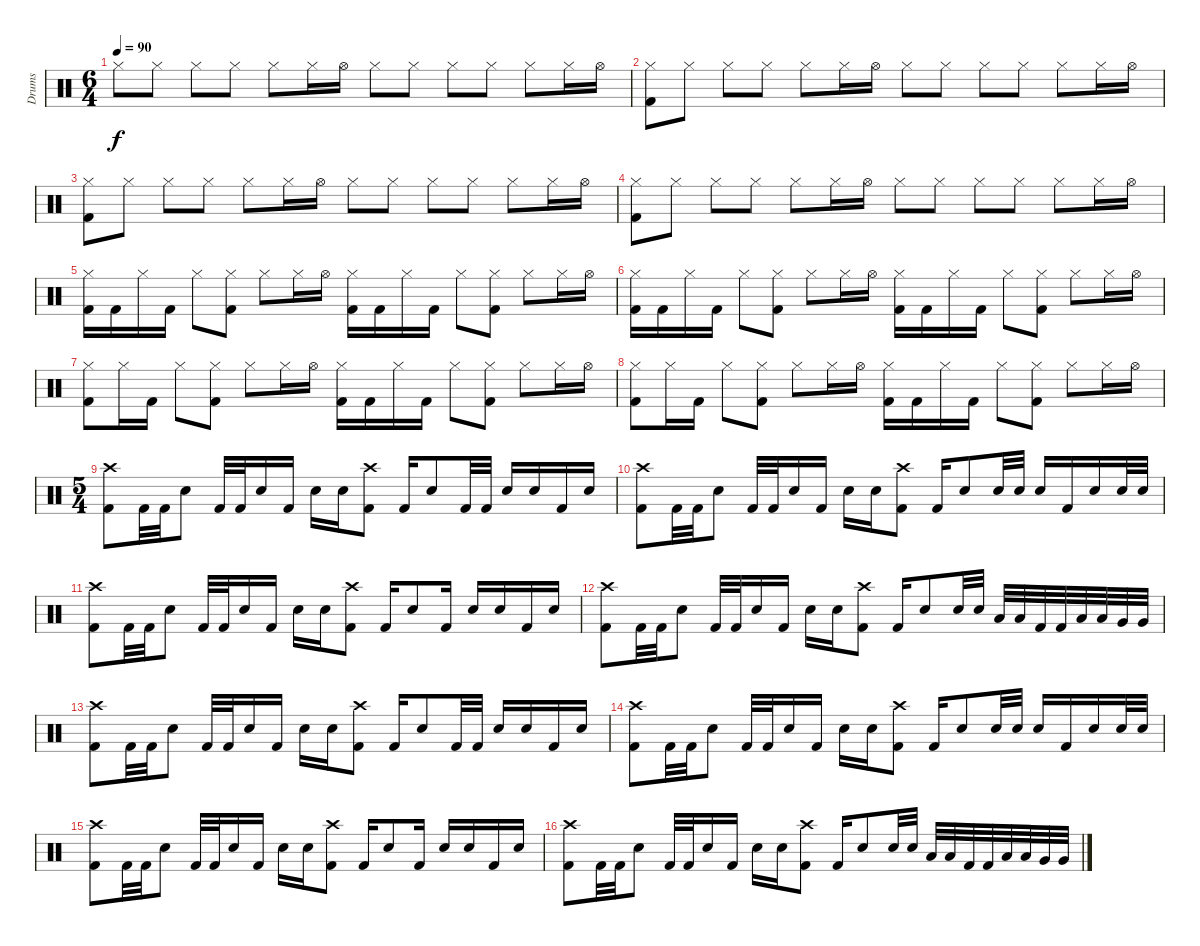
\track ("Drums" "Drums") {instrument percussion}
\staff {score}
\articulation defaults
\ts (6 4)
\tempo 90
\clef neutral
\ks c "Hi-Hat (closed)".8{dy f} "Hi-Hat (closed)".8 "Hi-Hat (closed)".8 "Hi-Hat (closed)".8 "Hi-Hat (closed)".8 "Hi-Hat (closed)".16 "Hi-Hat (open)".16 "Hi-Hat (closed)".8 "Hi-Hat (closed)".8 "Hi-Hat (closed)".8 "Hi-Hat (closed)".8 "Hi-Hat (closed)".8 "Hi-Hat (closed)".16 "Hi-Hat (open)".16
|
("Kick (hit) 2" "Hi-Hat (closed)").8 "Hi-Hat (closed)".8 "Hi-Hat (closed)".8 "Hi-Hat (closed)".8 "Hi-Hat (closed)".8 "Hi-Hat (closed)".16 "Hi-Hat (open)".16 "Hi-Hat (closed)".8 "Hi-Hat (closed)".8 "Hi-Hat (closed)".8 "Hi-Hat (closed)".8 "Hi-Hat (closed)".8 "Hi-Hat (closed)".16 "Hi-Hat (open)".16 |
("Kick (hit) 2" "Hi-Hat (closed)").8 "Hi-Hat (closed)".8 "Hi-Hat (closed)".8 "Hi-Hat (closed)".8 "Hi-Hat (closed)".8 "Hi-Hat (closed)".16 "Hi-Hat (open)".16 "Hi-Hat (closed)".8 "Hi-Hat (closed)".8 "Hi-Hat (closed)".8 "Hi-Hat (closed)".8 "Hi-Hat (closed)".8 "Hi-Hat (closed)".16 "Hi-Hat (open)".16 |
("Kick (hit) 2" "Hi-Hat (closed)").8 "Hi-Hat (closed)".8 "Hi-Hat (closed)".8 "Hi-Hat (closed)".8 "Hi-Hat (closed)".8 "Hi-Hat (closed)".16 "Hi-Hat (open)".16 "Hi-Hat (closed)".8 "Hi-Hat (closed)".8 "Hi-Hat (closed)".8 "Hi-Hat (closed)".8 "Hi-Hat (closed)".8 "Hi-Hat (closed)".16 "Hi-Hat (open)".16 |
("Kick (hit) 2" "Hi-Hat (closed)").16 "Kick (hit) 2".16 "Hi-Hat (closed)".16 "Kick (hit) 2".16 "Hi-Hat (closed)".8 ("Kick (hit) 2" "Hi-Hat (closed)").8 "Hi-Hat (closed)".8 "Hi-Hat (closed)".16 "Hi-Hat (open)".16 ("Kick (hit) 2" "Hi-Hat (closed)").16 "Kick (hit) 2".16 "Hi-Hat (closed)".16 "Kick (hit) 2".16 "Hi-Hat (closed)".8 ("Kick (hit) 2" "Hi-Hat (closed)").8 "Hi-Hat (closed)".8 "Hi-Hat (closed)".16 "Hi-Hat (open)".16 |
("Kick (hit) 2" "Hi-Hat (closed)").16 "Kick (hit) 2".16 "Hi-Hat (closed)".16 "Kick (hit) 2".16 "Hi-Hat (closed)".8 ("Kick (hit) 2" "Hi-Hat (closed)").8 "Hi-Hat (closed)".8 "Hi-Hat (closed)".16 "Hi-Hat (open)".16 ("Kick (hit) 2" "Hi-Hat (closed)").16 "Kick (hit) 2".16 "Hi-Hat (closed)".16 "Kick (hit) 2".16 "Hi-Hat (closed)".8 ("Kick (hit) 2" "Hi-Hat (closed)").8 "Hi-Hat (closed)".8 "Hi-Hat (closed)".16 "Hi-Hat (open)".16 |
("Kick (hit) 2" "Hi-Hat (closed)").8 "Hi-Hat (closed)".16 "Kick (hit) 2".16 "Hi-Hat (closed)".8 ("Kick (hit) 2" "Hi-Hat (closed)").8 "Hi-Hat (closed)".8 "Hi-Hat (closed)".16 "Hi-Hat (open)".16 ("Kick (hit) 2" "Hi-Hat (closed)").16 "Kick (hit) 2".16 "Hi-Hat (closed)".16 "Kick (hit) 2".16 "Hi-Hat (closed)".8 ("Kick (hit) 2" "Hi-Hat (closed)").8 "Hi-Hat (closed)".8 "Hi-Hat (closed)".16 "Hi-Hat (open)".16 |
("Kick (hit) 2" "Hi-Hat (closed)").8 "Hi-Hat (closed)".16 "Kick (hit) 2".16 "Hi-Hat (closed)".8 ("Kick (hit) 2" "Hi-Hat (closed)").8 "Hi-Hat (closed)".8 "Hi-Hat (closed)".16 "Hi-Hat (open)".16 ("Kick (hit) 2" "Hi-Hat (closed)").16 "Kick (hit) 2".16 "Hi-Hat (closed)".16 "Kick (hit) 2".16 "Hi-Hat (closed)".8 ("Kick (hit) 2" "Hi-Hat (closed)").8 "Hi-Hat (closed)".8 "Hi-Hat (closed)".16 "Hi-Hat (open)".16 |
\ts (5 4)
("Kick (hit) 2" "Crash high (hit)").8 "Kick (hit) 2".32 "Kick (hit) 2".32 "Snare (hit) 2".8 "Kick (hit) 2".32 "Kick (hit) 2".32 "Snare (hit) 2".16 "Kick (hit) 2".16 "Snare (hit) 2".16 "Snare (hit) 2".16 ("Kick (hit) 2" "Crash high (hit)").8 "Kick (hit) 2".16 "Snare (hit) 2".8 "Kick (hit) 2".32 "Kick (hit) 2".32 "Snare (hit) 2".16 "Snare (hit) 2".16 "Kick (hit) 2".16 "Snare (hit) 2".16 |
("Kick (hit) 2" "Crash high (hit)").8 "Kick (hit) 2".32 "Kick (hit) 2".32 "Snare (hit) 2".8 "Kick (hit) 2".32 "Kick (hit) 2".32 "Snare (hit) 2".16 "Kick (hit) 2".16 "Snare (hit) 2".16 "Snare (hit) 2".16 ("Kick (hit) 2" "Crash high (hit)").8 "Kick (hit) 2".16 "Snare (hit) 2".8 "Snare (hit) 2".32 "Snare (hit) 2".32 "Snare (hit) 2".16 "Kick (hit) 2".16 "Snare (hit) 2".16 "Snare (hit) 2".32 "Snare (hit) 2".32 |
("Kick (hit) 2" "Crash high (hit)").8 "Kick (hit) 2".32 "Kick (hit) 2".32 "Snare (hit) 2".8 "Kick (hit) 2".32 "Kick (hit) 2".32 "Snare (hit) 2".16 "Kick (hit) 2".16 "Snare (hit) 2".16 "Snare (hit) 2".16 ("Kick (hit) 2" "Crash high (hit)").8 "Kick (hit) 2".16 "Snare (hit) 2".8 "Kick (hit) 2".16 "Snare (hit) 2".16 "Snare (hit) 2".16 "Kick (hit) 2".16 "Snare (hit) 2".16 |
("Kick (hit) 2" "Crash high (hit)").8 "Kick (hit) 2".32 "Kick (hit) 2".32 "Snare (hit) 2".8 "Kick (hit) 2".32 "Kick (hit) 2".32 "Snare (hit) 2".16 "Kick (hit) 2".16 "Snare (hit) 2".16 "Snare (hit) 2".16 ("Kick (hit) 2" "Crash high (hit)").8 "Kick (hit) 2".16 "Snare (hit) 2".8 "Snare (hit) 2".32 "Snare (hit) 2".32 "Low Tom (hit)".32 "Low Tom (hit)".32 "Kick (hit) 2".32 "Kick (hit) 2".32 "Low Tom (hit)".32 "Low Tom (hit)".32 "Very Low Tom (hit)".32 "Very Low Tom (hit)".32 |
("Kick (hit) 2" "Crash high (hit)").8 "Kick (hit) 2".32 "Kick (hit) 2".32 "Snare (hit) 2".8 "Kick (hit) 2".32 "Kick (hit) 2".32 "Snare (hit) 2".16 "Kick (hit) 2".16 "Snare (hit) 2".16 "Snare (hit) 2".16 ("Kick (hit) 2" "Crash high (hit)").8 "Kick (hit) 2".16 "Snare (hit) 2".8 "Kick (hit) 2".32 "Kick (hit) 2".32 "Snare (hit) 2".16 "Snare (hit) 2".16 "Kick (hit) 2".16 "Snare (hit) 2".16 |
("Kick (hit) 2" "Crash high (hit)").8 "Kick (hit) 2".32 "Kick (hit) 2".32 "Snare (hit) 2".8 "Kick (hit) 2".32 "Kick (hit) 2".32 "Snare (hit) 2".16 "Kick (hit) 2".16 "Snare (hit) 2".16 "Snare (hit) 2".16 ("Kick (hit) 2" "Crash high (hit)").8 "Kick (hit) 2".16 "Snare (hit) 2".8 "Snare (hit) 2".32 "Snare (hit) 2".32 "Snare (hit) 2".16 "Kick (hit) 2".16 "Snare (hit) 2".16 "Snare (hit) 2".32 "Snare (hit) 2".32 |
("Kick (hit) 2" "Crash high (hit)").8 "Kick (hit) 2".32 "Kick (hit) 2".32 "Snare (hit) 2".8 "Kick (hit) 2".32 "Kick (hit) 2".32 "Snare (hit) 2".16 "Kick (hit) 2".16 "Snare (hit) 2".16 "Snare (hit) 2".16 ("Kick (hit) 2" "Crash high (hit)").8 "Kick (hit) 2".16 "Snare (hit) 2".8 "Kick (hit) 2".16 "Snare (hit) 2".16 "Snare (hit) 2".16 "Kick (hit) 2".16 "Snare (hit) 2".16 |
("Kick (hit) 2" "Crash high (hit)").8 "Kick (hit) 2".32 "Kick (hit) 2".32 "Snare (hit) 2".8 "Kick (hit) 2".32 "Kick (hit) 2".32 "Snare (hit) 2".16 "Kick (hit) 2".16 "Snare (hit) 2".16 "Snare (hit) 2".16 ("Kick (hit) 2" "Crash high (hit)").8 "Kick (hit) 2".16 "Snare (hit) 2".8 "Snare (hit) 2".32 "Snare (hit) 2".32 "Low Tom (hit)".32 "Low Tom (hit)".32 "Kick (hit) 2".32 "Kick (hit) 2".32 "Low Tom (hit)".32 "Low Tom (hit)".32 "Very Low Tom (hit)".32 "Very Low Tom (hit)".32
